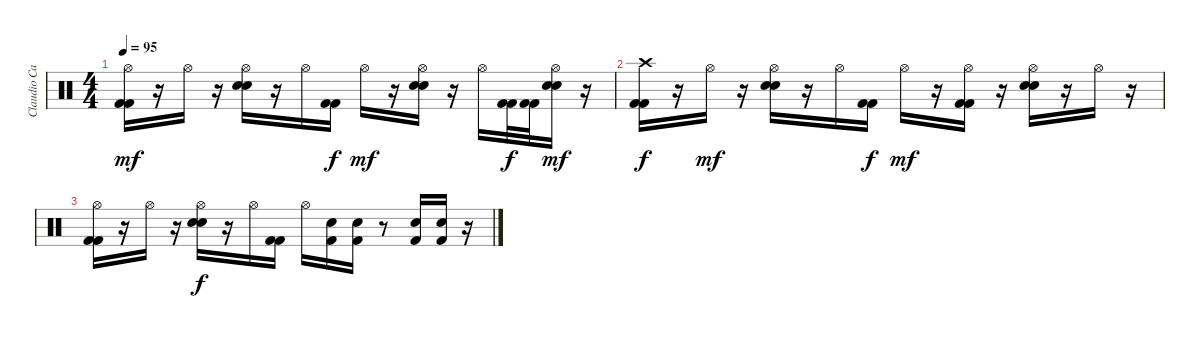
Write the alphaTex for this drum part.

\track ("Claudio Cardaci (bateria)" "Claudio Ca") {instrument percussion}
\staff {score}
\articulation defaults
\ts (4 4)
\tempo 95
\clef neutral
\ks c
("Hi-Hat (open)" "Kick (hit) 2" "Kick (hit) 2").16{dy mf} r.16 "Hi-Hat (open)".16 r.16 ("Hi-Hat (open)" "Snare (hit) 2" "Snare (hit) 2").16 r.16 "Hi-Hat (open)".16 ("Kick (hit) 2" "Kick (hit) 2").16{dy f} "Hi-Hat (open)".16{dy mf} r.16 ("Hi-Hat (open)" "Snare (hit) 2" "Snare (hit) 2").16 r.16 "Hi-Hat (open)".16 ("Kick (hit) 2" "Kick (hit) 2").32{dy f} ("Kick (hit) 2" "Kick (hit) 2").32 ("Hi-Hat (open)" "Snare (hit) 2" "Snare (hit) 2").16{dy mf} r.16 |
("Crash high (hit)" "Kick (hit) 2" "Kick (hit) 2").16{dy f} r.16 "Hi-Hat (open)".16{dy mf} r.16 ("Hi-Hat (open)" "Snare (hit) 2" "Snare (hit) 2").16 r.16 "Hi-Hat (open)".16 ("Kick (hit) 2" "Kick (hit) 2").16{dy f} "Hi-Hat (open)".16{dy mf} r.16 ("Hi-Hat (open)" "Kick (hit) 2" "Kick (hit) 2").16 r.16 ("Hi-Hat (open)" "Snare (hit) 2" "Snare (hit) 2").16 r.16 "Hi-Hat (open)".16 r.16 |
("Hi-Hat (open)" "Kick (hit) 2" "Kick (hit) 2").16 r.16 "Hi-Hat (open)".16 r.16 ("Hi-Hat (open)" "Snare (hit) 2" "Snare (hit) 2").16{dy f} r.16 "Hi-Hat (open)".16 ("Kick (hit) 2" "Kick (hit) 2").16 "Hi-Hat (open)".16 ("Snare (hit) 2" "Kick (hit) 2").16 ("Snare (hit) 2" "Kick (hit) 2").16 r.8 ("Snare (hit) 2" "Kick (hit) 2").16 ("Snare (hit) 2" "Kick (hit) 2").16 r.16
